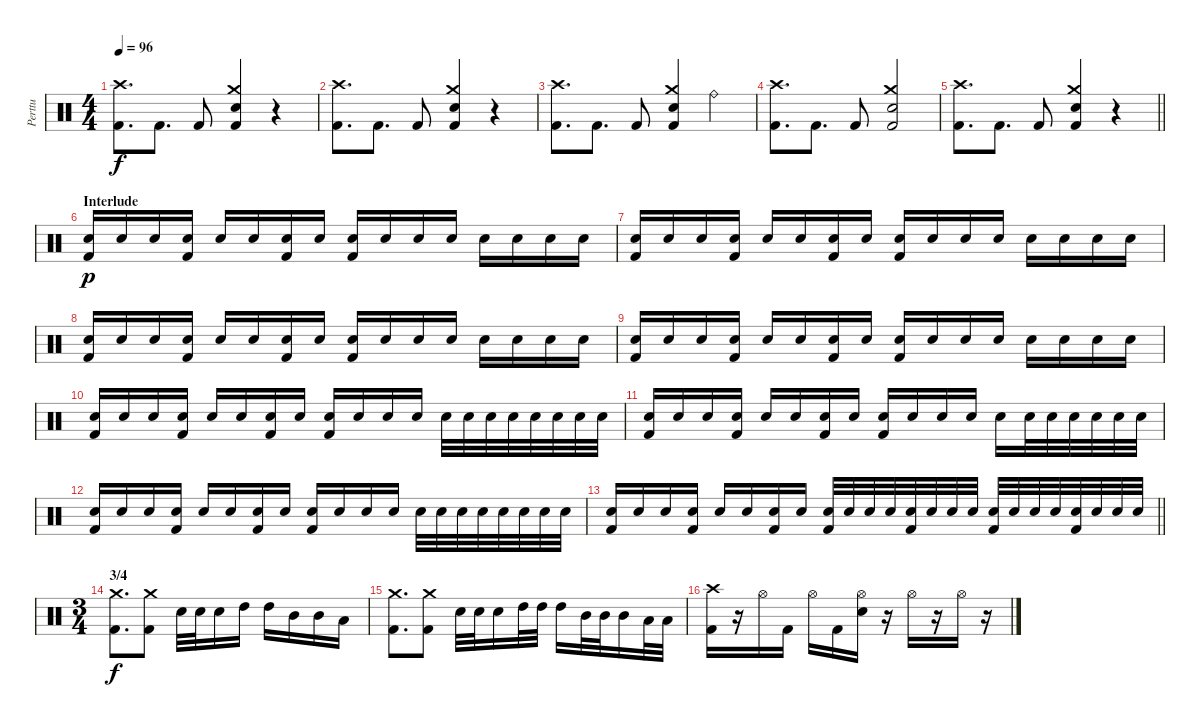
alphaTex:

\track ("Perttu" "Perttu") {instrument percussion}
\staff {score}
\articulation defaults
\ts (4 4)
\tempo 96
\clef neutral
\ks c
("Crash high (hit)" "Kick (hit) 2").8{d dy f} "Kick (hit) 2".8{d} "Kick (hit) 2".8 ("Crash medium (hit)" "Electric Snare (hit)" "Kick (hit) 2").4 r.4 |
("Crash high (hit)" "Kick (hit) 2").8{d} "Kick (hit) 2".8{d} "Kick (hit) 2".8 ("Crash medium (hit)" "Electric Snare (hit)" "Kick (hit) 2").4 r.4 |
("Crash high (hit)" "Kick (hit) 2").8{d} "Kick (hit) 2".8{d} "Kick (hit) 2".8 ("Crash medium (hit)" "Electric Snare (hit)" "Kick (hit) 2").4 "Ride (bell)".4 |
("Crash high (hit)" "Kick (hit) 2").8{d} "Kick (hit) 2".8{d} "Kick (hit) 2".8 ("Crash medium (hit)" "Electric Snare (hit)" "Kick (hit) 2").2 |
\barLineRight lightlight
("Crash high (hit)" "Kick (hit) 2").8{d} "Kick (hit) 2".8{d} "Kick (hit) 2".8 ("Crash medium (hit)" "Electric Snare (hit)" "Kick (hit) 2").4 r.4 |
\section ("" "Interlude")
("Electric Snare (hit)" "Kick (hit) 2").16{dy p} "Electric Snare (hit)".16 "Electric Snare (hit)".16 ("Electric Snare (hit)" "Kick (hit) 2").16 "Electric Snare (hit)".16 "Electric Snare (hit)".16 ("Electric Snare (hit)" "Kick (hit) 2").16 "Electric Snare (hit)".16 ("Electric Snare (hit)" "Kick (hit) 2").16 "Electric Snare (hit)".16 "Electric Snare (hit)".16 "Electric Snare (hit)".16 "Electric Snare (hit)".16 "Electric Snare (hit)".16 "Electric Snare (hit)".16 "Electric Snare (hit)".16 |
("Electric Snare (hit)" "Kick (hit) 2").16 "Electric Snare (hit)".16 "Electric Snare (hit)".16 ("Electric Snare (hit)" "Kick (hit) 2").16 "Electric Snare (hit)".16 "Electric Snare (hit)".16 ("Electric Snare (hit)" "Kick (hit) 2").16 "Electric Snare (hit)".16 ("Electric Snare (hit)" "Kick (hit) 2").16 "Electric Snare (hit)".16 "Electric Snare (hit)".16 "Electric Snare (hit)".16 "Electric Snare (hit)".16 "Electric Snare (hit)".16 "Electric Snare (hit)".16 "Electric Snare (hit)".16 |
("Electric Snare (hit)" "Kick (hit) 2").16 "Electric Snare (hit)".16 "Electric Snare (hit)".16 ("Electric Snare (hit)" "Kick (hit) 2").16 "Electric Snare (hit)".16 "Electric Snare (hit)".16 ("Electric Snare (hit)" "Kick (hit) 2").16 "Electric Snare (hit)".16 ("Electric Snare (hit)" "Kick (hit) 2").16 "Electric Snare (hit)".16 "Electric Snare (hit)".16 "Electric Snare (hit)".16 "Electric Snare (hit)".16 "Electric Snare (hit)".16 "Electric Snare (hit)".16 "Electric Snare (hit)".16 |
("Electric Snare (hit)" "Kick (hit) 2").16 "Electric Snare (hit)".16 "Electric Snare (hit)".16 ("Electric Snare (hit)" "Kick (hit) 2").16 "Electric Snare (hit)".16 "Electric Snare (hit)".16 ("Electric Snare (hit)" "Kick (hit) 2").16 "Electric Snare (hit)".16 ("Electric Snare (hit)" "Kick (hit) 2").16 "Electric Snare (hit)".16 "Electric Snare (hit)".16 "Electric Snare (hit)".16 "Electric Snare (hit)".16 "Electric Snare (hit)".16 "Electric Snare (hit)".16 "Electric Snare (hit)".16 |
("Electric Snare (hit)" "Kick (hit) 2").16 "Electric Snare (hit)".16 "Electric Snare (hit)".16 ("Electric Snare (hit)" "Kick (hit) 2").16 "Electric Snare (hit)".16 "Electric Snare (hit)".16 ("Electric Snare (hit)" "Kick (hit) 2").16 "Electric Snare (hit)".16 ("Electric Snare (hit)" "Kick (hit) 2").16 "Electric Snare (hit)".16 "Electric Snare (hit)".16 "Electric Snare (hit)".16 "Electric Snare (hit)".32 "Electric Snare (hit)".32 "Electric Snare (hit)".32 "Electric Snare (hit)".32 "Electric Snare (hit)".32 "Electric Snare (hit)".32 "Electric Snare (hit)".32 "Electric Snare (hit)".32 |
("Electric Snare (hit)" "Kick (hit) 2").16 "Electric Snare (hit)".16 "Electric Snare (hit)".16 ("Electric Snare (hit)" "Kick (hit) 2").16 "Electric Snare (hit)".16 "Electric Snare (hit)".16 ("Electric Snare (hit)" "Kick (hit) 2").16 "Electric Snare (hit)".16 ("Electric Snare (hit)" "Kick (hit) 2").16 "Electric Snare (hit)".16 "Electric Snare (hit)".16 "Electric Snare (hit)".16 "Electric Snare (hit)".16 "Electric Snare (hit)".32 "Electric Snare (hit)".32 "Electric Snare (hit)".32 "Electric Snare (hit)".32 "Electric Snare (hit)".32 "Electric Snare (hit)".32 |
("Electric Snare (hit)" "Kick (hit) 2").16 "Electric Snare (hit)".16 "Electric Snare (hit)".16 ("Electric Snare (hit)" "Kick (hit) 2").16 "Electric Snare (hit)".16 "Electric Snare (hit)".16 ("Electric Snare (hit)" "Kick (hit) 2").16 "Electric Snare (hit)".16 ("Electric Snare (hit)" "Kick (hit) 2").16 "Electric Snare (hit)".16 "Electric Snare (hit)".16 "Electric Snare (hit)".16 "Electric Snare (hit)".32 "Electric Snare (hit)".32 "Electric Snare (hit)".32 "Electric Snare (hit)".32 "Electric Snare (hit)".32 "Electric Snare (hit)".32 "Electric Snare (hit)".32 "Electric Snare (hit)".32 |
\barLineRight lightlight
("Electric Snare (hit)" "Kick (hit) 2").16 "Electric Snare (hit)".16 "Electric Snare (hit)".16 ("Electric Snare (hit)" "Kick (hit) 2").16 "Electric Snare (hit)".16 "Electric Snare (hit)".16 ("Electric Snare (hit)" "Kick (hit) 2").16 "Electric Snare (hit)".16 ("Electric Snare (hit)" "Kick (hit) 2").32 "Electric Snare (hit)".32 "Electric Snare (hit)".32 "Electric Snare (hit)".32 ("Electric Snare (hit)" "Kick (hit) 2").32 "Electric Snare (hit)".32 "Electric Snare (hit)".32 "Electric Snare (hit)".32 ("Electric Snare (hit)" "Kick (hit) 2").32 "Electric Snare (hit)".32 "Electric Snare (hit)".32 "Electric Snare (hit)".32 ("Electric Snare (hit)" "Kick (hit) 2").32 "Electric Snare (hit)".32 "Electric Snare (hit)".32 "Electric Snare (hit)".32 |
\ts (3 4)
\section ("" "3/4")
("Crash medium (hit)" "Kick (hit) 2").8{d dy f} ("Crash medium (hit)" "Kick (hit) 2").8 "Electric Snare (hit)".32 "Electric Snare (hit)".32 "Electric Snare (hit)".16 "High Tom (hit)".16 "High Tom (hit)".16 "Mid Tom (hit)".16 "Mid Tom (hit)".16 "Low Tom (hit)".16 |
("Crash medium (hit)" "Kick (hit) 2").8{d} ("Crash medium (hit)" "Kick (hit) 2").8 "Electric Snare (hit)".32 "Electric Snare (hit)".32 "Electric Snare (hit)".16 "High Tom (hit)".32 "High Tom (hit)".32 "High Tom (hit)".16 "Mid Tom (hit)".32 "Mid Tom (hit)".32 "Mid Tom (hit)".16 "Low Tom (hit)".32 "Low Tom (hit)".32 |
("Crash high (hit)" "Kick (hit) 2").16 r.16 "Hi-Hat (open)".16 "Kick (hit) 2".16 "Hi-Hat (open)".16 "Kick (hit) 2".16 ("Hi-Hat (open)" "Electric Snare (hit)").16 r.16 "Hi-Hat (open)".16 r.16 "Hi-Hat (open)".16 r.16
